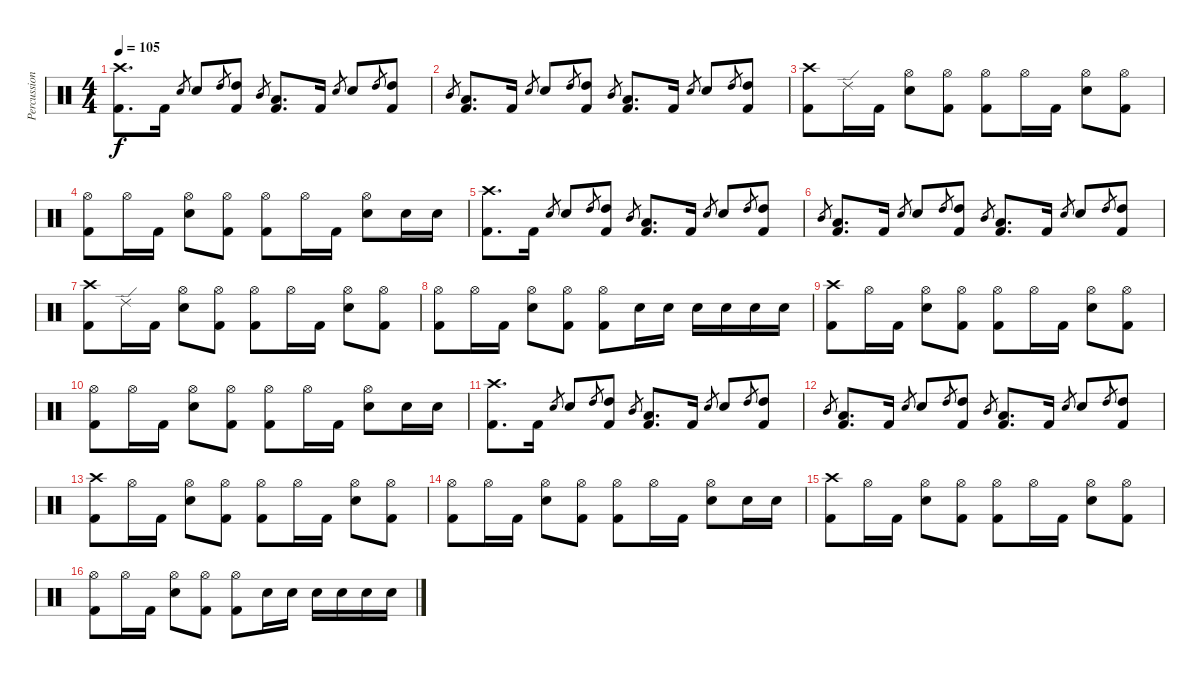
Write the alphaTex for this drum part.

\track ("Percussion" "Percussion") {instrument percussion}
\staff {score}
\articulation defaults
\ts (4 4)
\tempo 105
\clef neutral
\ks c
("Crash high (hit)" "Kick (hit) 2").8{d dy f} "Kick (hit) 2".16 "Electric Snare (hit)".8{gr} "Electric Snare (hit)".8 "High Tom (hit)".8{gr} ("High Tom (hit)" "Kick (hit) 2").8 "Mid Tom (hit)".8{gr} ("Low Tom (hit)" "Kick (hit) 2").8{d} "Kick (hit) 2".16 "Electric Snare (hit)".8{gr} "Electric Snare (hit)".8 "High Tom (hit)".8{gr} ("High Tom (hit)" "Kick (hit) 2").8 |
"Mid Tom (hit)".8{gr} ("Low Tom (hit)" "Kick (hit) 2").8{d} "Kick (hit) 2".16 "Electric Snare (hit)".8{gr} "Electric Snare (hit)".8 "High Tom (hit)".8{gr} ("High Tom (hit)" "Kick (hit) 2").8 "Mid Tom (hit)".8{gr} ("Low Tom (hit)" "Kick (hit) 2").8{d} "Kick (hit) 2".16 "Electric Snare (hit)".8{gr} "Electric Snare (hit)".8 "High Tom (hit)".8{gr} ("High Tom (hit)" "Kick (hit) 2").8 |
("Crash high (hit)" "Kick (hit) 2").8 "Ride (edge) 2".16 "Kick (hit) 2".16 ("Hi-Hat (open)" "Electric Snare (hit)").8 ("Hi-Hat (open)" "Kick (hit) 2").8 ("Hi-Hat (open)" "Kick (hit) 2").8 "Hi-Hat (open)".16 "Kick (hit) 2".16 ("Hi-Hat (open)" "Electric Snare (hit)").8 ("Hi-Hat (open)" "Kick (hit) 2").8 |
("Hi-Hat (open)" "Kick (hit) 2").8 "Hi-Hat (open)".16 "Kick (hit) 2".16 ("Hi-Hat (open)" "Electric Snare (hit)").8 ("Hi-Hat (open)" "Kick (hit) 2").8 ("Hi-Hat (open)" "Kick (hit) 2").8 "Hi-Hat (open)".16 "Kick (hit) 2".16 ("Hi-Hat (open)" "Electric Snare (hit)").8 "Electric Snare (hit)".16 "Electric Snare (hit)".16 |
("Crash high (hit)" "Kick (hit) 2").8{d} "Kick (hit) 2".16 "Electric Snare (hit)".8{gr} "Electric Snare (hit)".8 "High Tom (hit)".8{gr} ("High Tom (hit)" "Kick (hit) 2").8 "Mid Tom (hit)".8{gr} ("Low Tom (hit)" "Kick (hit) 2").8{d} "Kick (hit) 2".16 "Electric Snare (hit)".8{gr} "Electric Snare (hit)".8 "High Tom (hit)".8{gr} ("High Tom (hit)" "Kick (hit) 2").8 |
"Mid Tom (hit)".8{gr} ("Low Tom (hit)" "Kick (hit) 2").8{d} "Kick (hit) 2".16 "Electric Snare (hit)".8{gr} "Electric Snare (hit)".8 "High Tom (hit)".8{gr} ("High Tom (hit)" "Kick (hit) 2").8 "Mid Tom (hit)".8{gr} ("Low Tom (hit)" "Kick (hit) 2").8{d} "Kick (hit) 2".16 "Electric Snare (hit)".8{gr} "Electric Snare (hit)".8 "High Tom (hit)".8{gr} ("High Tom (hit)" "Kick (hit) 2").8 |
("Crash high (hit)" "Kick (hit) 2").8 "Ride (edge) 2".16 "Kick (hit) 2".16 ("Hi-Hat (open)" "Electric Snare (hit)").8 ("Hi-Hat (open)" "Kick (hit) 2").8 ("Hi-Hat (open)" "Kick (hit) 2").8 "Hi-Hat (open)".16 "Kick (hit) 2".16 ("Hi-Hat (open)" "Electric Snare (hit)").8 ("Hi-Hat (open)" "Kick (hit) 2").8 |
("Hi-Hat (open)" "Kick (hit) 2").8 "Hi-Hat (open)".16 "Kick (hit) 2".16 ("Hi-Hat (open)" "Electric Snare (hit)").8 ("Hi-Hat (open)" "Kick (hit) 2").8 ("Hi-Hat (open)" "Kick (hit) 2").8 "Electric Snare (hit)".16 "Electric Snare (hit)".16 "Electric Snare (hit)".16 "Electric Snare (hit)".16 "Electric Snare (hit)".16 "Electric Snare (hit)".16 |
("Crash high (hit)" "Kick (hit) 2").8 "Hi-Hat (open)".16 "Kick (hit) 2".16 ("Hi-Hat (open)" "Electric Snare (hit)").8 ("Hi-Hat (open)" "Kick (hit) 2").8 ("Hi-Hat (open)" "Kick (hit) 2").8 "Hi-Hat (open)".16 "Kick (hit) 2".16 ("Hi-Hat (open)" "Electric Snare (hit)").8 ("Hi-Hat (open)" "Kick (hit) 2").8 |
("Hi-Hat (open)" "Kick (hit) 2").8 "Hi-Hat (open)".16 "Kick (hit) 2".16 ("Hi-Hat (open)" "Electric Snare (hit)").8 ("Hi-Hat (open)" "Kick (hit) 2").8 ("Hi-Hat (open)" "Kick (hit) 2").8 "Hi-Hat (open)".16 "Kick (hit) 2".16 ("Hi-Hat (open)" "Electric Snare (hit)").8 "Electric Snare (hit)".16 "Electric Snare (hit)".16 |
("Crash high (hit)" "Kick (hit) 2").8{d} "Kick (hit) 2".16 "Electric Snare (hit)".8{gr} "Electric Snare (hit)".8 "High Tom (hit)".8{gr} ("High Tom (hit)" "Kick (hit) 2").8 "Mid Tom (hit)".8{gr} ("Low Tom (hit)" "Kick (hit) 2").8{d} "Kick (hit) 2".16 "Electric Snare (hit)".8{gr} "Electric Snare (hit)".8 "High Tom (hit)".8{gr} ("High Tom (hit)" "Kick (hit) 2").8 |
"Mid Tom (hit)".8{gr} ("Low Tom (hit)" "Kick (hit) 2").8{d} "Kick (hit) 2".16 "Electric Snare (hit)".8{gr} "Electric Snare (hit)".8 "High Tom (hit)".8{gr} ("High Tom (hit)" "Kick (hit) 2").8 "Mid Tom (hit)".8{gr} ("Low Tom (hit)" "Kick (hit) 2").8{d} "Kick (hit) 2".16 "Electric Snare (hit)".8{gr} "Electric Snare (hit)".8 "High Tom (hit)".8{gr} ("High Tom (hit)" "Kick (hit) 2").8 |
("Crash high (hit)" "Kick (hit) 2").8 "Hi-Hat (open)".16 "Kick (hit) 2".16 ("Hi-Hat (open)" "Electric Snare (hit)").8 ("Hi-Hat (open)" "Kick (hit) 2").8 ("Hi-Hat (open)" "Kick (hit) 2").8 "Hi-Hat (open)".16 "Kick (hit) 2".16 ("Hi-Hat (open)" "Electric Snare (hit)").8 ("Hi-Hat (open)" "Kick (hit) 2").8 |
("Hi-Hat (open)" "Kick (hit) 2").8 "Hi-Hat (open)".16 "Kick (hit) 2".16 ("Hi-Hat (open)" "Electric Snare (hit)").8 ("Hi-Hat (open)" "Kick (hit) 2").8 ("Hi-Hat (open)" "Kick (hit) 2").8 "Hi-Hat (open)".16 "Kick (hit) 2".16 ("Hi-Hat (open)" "Electric Snare (hit)").8 "Electric Snare (hit)".16 "Electric Snare (hit)".16 |
("Crash high (hit)" "Kick (hit) 2").8 "Hi-Hat (open)".16 "Kick (hit) 2".16 ("Hi-Hat (open)" "Electric Snare (hit)").8 ("Hi-Hat (open)" "Kick (hit) 2").8 ("Hi-Hat (open)" "Kick (hit) 2").8 "Hi-Hat (open)".16 "Kick (hit) 2".16 ("Hi-Hat (open)" "Electric Snare (hit)").8 ("Hi-Hat (open)" "Kick (hit) 2").8 |
("Hi-Hat (open)" "Kick (hit) 2").8 "Hi-Hat (open)".16 "Kick (hit) 2".16 ("Hi-Hat (open)" "Electric Snare (hit)").8 ("Hi-Hat (open)" "Kick (hit) 2").8 ("Hi-Hat (open)" "Kick (hit) 2").8 "Electric Snare (hit)".16 "Electric Snare (hit)".16 "Electric Snare (hit)".16 "Electric Snare (hit)".16 "Electric Snare (hit)".16 "Electric Snare (hit)".16
